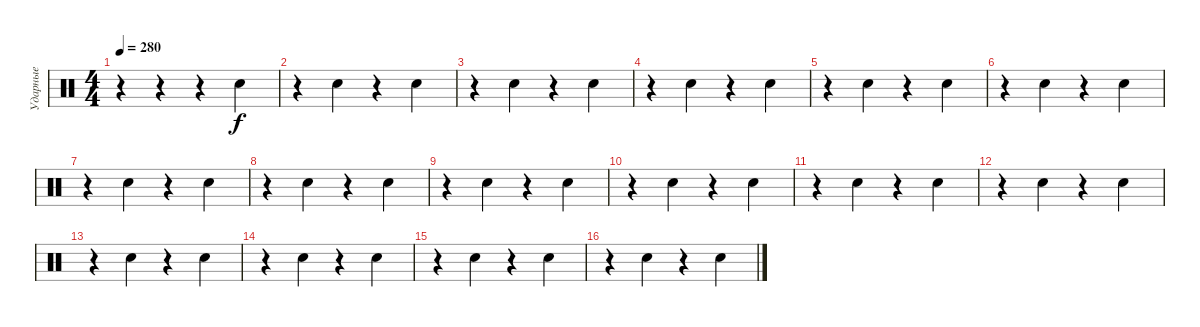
\track ("Ударные" "Ударные") {instrument percussion}
\staff {score}
\articulation defaults
\ts (4 4)
\tempo 280
\clef neutral
\ks c
r.4{dy fff} r.4 r.4 "Snare (hit) 2".4{dy f} |
r.4 "Snare (hit) 2".4 r.4 "Snare (hit) 2".4 |
r.4 "Snare (hit) 2".4 r.4 "Snare (hit) 2".4 |
r.4 "Snare (hit) 2".4 r.4 "Snare (hit) 2".4 |
r.4 "Snare (hit) 2".4 r.4 "Snare (hit) 2".4 |
r.4 "Snare (hit) 2".4 r.4 "Snare (hit) 2".4 |
r.4 "Snare (hit) 2".4 r.4 "Snare (hit) 2".4 |
r.4 "Snare (hit) 2".4 r.4 "Snare (hit) 2".4 |
r.4 "Snare (hit) 2".4 r.4 "Snare (hit) 2".4 |
r.4 "Snare (hit) 2".4 r.4 "Snare (hit) 2".4 |
r.4 "Snare (hit) 2".4 r.4 "Snare (hit) 2".4 |
r.4 "Snare (hit) 2".4 r.4 "Snare (hit) 2".4 |
r.4 "Snare (hit) 2".4 r.4 "Snare (hit) 2".4 |
r.4 "Snare (hit) 2".4 r.4 "Snare (hit) 2".4 |
r.4 "Snare (hit) 2".4 r.4 "Snare (hit) 2".4 |
r.4 "Snare (hit) 2".4 r.4 "Snare (hit) 2".4
